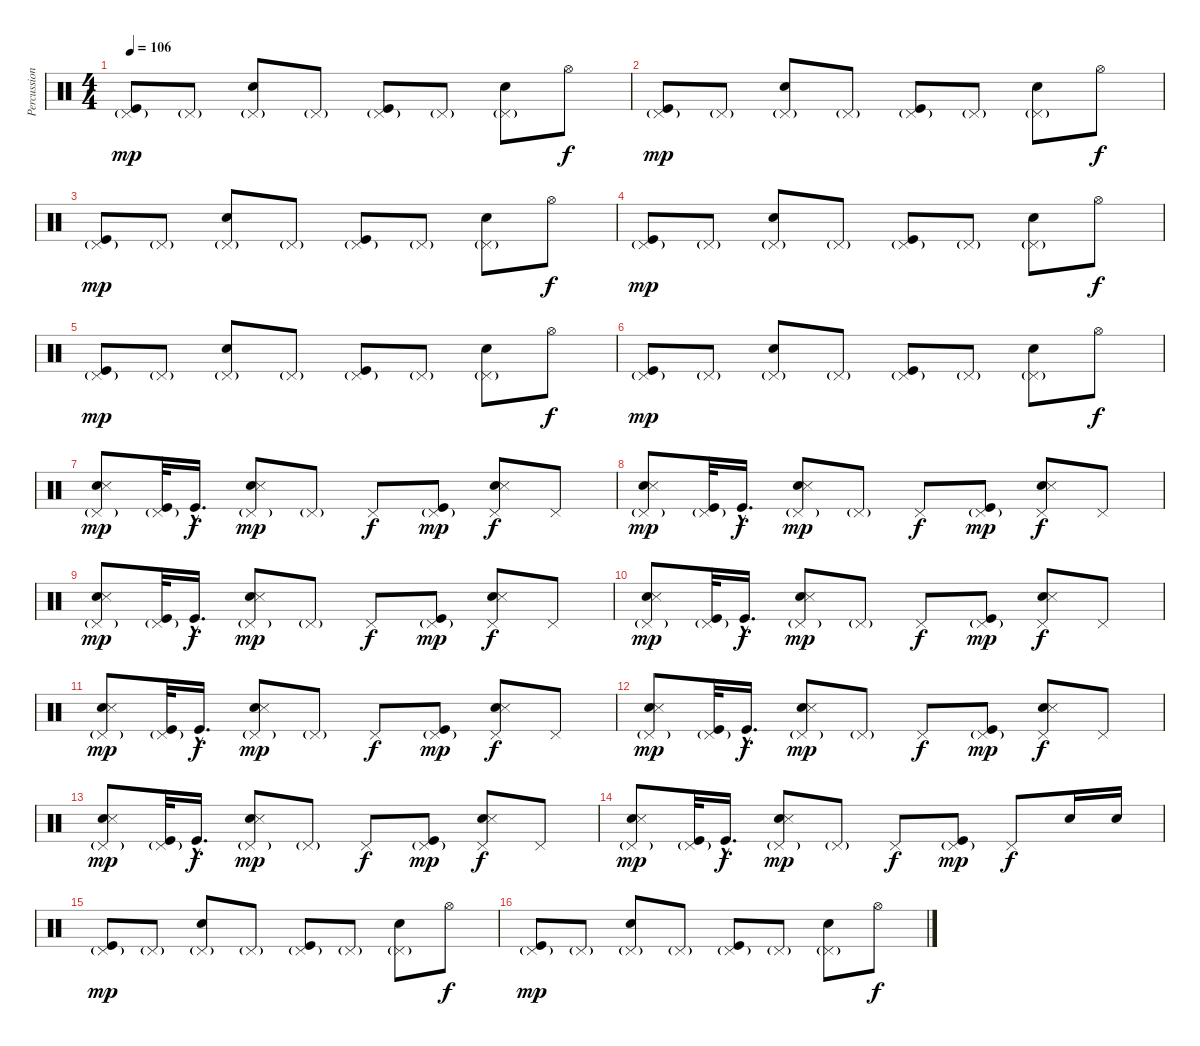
\track ("Percussions" "Percussion") {instrument percussion}
\staff {score}
\articulation defaults
\ts (4 4)
\tempo 106
\clef neutral
\ks c
("Pedal Hi-Hat (hit)"{g} "Kick (hit)").8{dy mp} "Pedal Hi-Hat (hit)"{g}.8 ("Pedal Hi-Hat (hit)"{g} "Electric Snare (hit)").8 "Pedal Hi-Hat (hit)"{g}.8 ("Pedal Hi-Hat (hit)"{g} "Kick (hit)").8 "Pedal Hi-Hat (hit)"{g}.8 ("Pedal Hi-Hat (hit)"{g} "Electric Snare (hit)").8 "Hi-Hat (open)".8{dy f} |
("Pedal Hi-Hat (hit)"{g} "Kick (hit)").8{dy mp} "Pedal Hi-Hat (hit)"{g}.8 ("Pedal Hi-Hat (hit)"{g} "Electric Snare (hit)").8 "Pedal Hi-Hat (hit)"{g}.8 ("Pedal Hi-Hat (hit)"{g} "Kick (hit)").8 "Pedal Hi-Hat (hit)"{g}.8 ("Pedal Hi-Hat (hit)"{g} "Electric Snare (hit)").8 "Hi-Hat (open)".8{dy f} |
("Pedal Hi-Hat (hit)"{g} "Kick (hit)").8{dy mp} "Pedal Hi-Hat (hit)"{g}.8 ("Pedal Hi-Hat (hit)"{g} "Electric Snare (hit)").8 "Pedal Hi-Hat (hit)"{g}.8 ("Pedal Hi-Hat (hit)"{g} "Kick (hit)").8 "Pedal Hi-Hat (hit)"{g}.8 ("Pedal Hi-Hat (hit)"{g} "Electric Snare (hit)").8 "Hi-Hat (open)".8{dy f} |
("Pedal Hi-Hat (hit)"{g} "Kick (hit)").8{dy mp} "Pedal Hi-Hat (hit)"{g}.8 ("Pedal Hi-Hat (hit)"{g} "Electric Snare (hit)").8 "Pedal Hi-Hat (hit)"{g}.8 ("Pedal Hi-Hat (hit)"{g} "Kick (hit)").8 "Pedal Hi-Hat (hit)"{g}.8 ("Pedal Hi-Hat (hit)"{g} "Electric Snare (hit)").8 "Hi-Hat (open)".8{dy f} |
("Pedal Hi-Hat (hit)"{g} "Kick (hit)").8{dy mp} "Pedal Hi-Hat (hit)"{g}.8 ("Pedal Hi-Hat (hit)"{g} "Electric Snare (hit)").8 "Pedal Hi-Hat (hit)"{g}.8 ("Pedal Hi-Hat (hit)"{g} "Kick (hit)").8 "Pedal Hi-Hat (hit)"{g}.8 ("Pedal Hi-Hat (hit)"{g} "Electric Snare (hit)").8 "Hi-Hat (open)".8{dy f} |
("Pedal Hi-Hat (hit)"{g} "Kick (hit)").8{dy mp} "Pedal Hi-Hat (hit)"{g}.8 ("Pedal Hi-Hat (hit)"{g} "Electric Snare (hit)").8 "Pedal Hi-Hat (hit)"{g}.8 ("Pedal Hi-Hat (hit)"{g} "Kick (hit)").8 "Pedal Hi-Hat (hit)"{g}.8 ("Pedal Hi-Hat (hit)"{g} "Electric Snare (hit)").8 "Hi-Hat (open)".8{dy f} |
("Pedal Hi-Hat (hit)"{g} "Electric Snare (hit)" "Snare (side stick) 3").8{dy mp} ("Pedal Hi-Hat (hit)"{g} "Kick (hit)").32 "Kick (hit)"{hac}.16{d dy f} ("Pedal Hi-Hat (hit)"{g} "Electric Snare (hit)" "Snare (side stick) 3").8{dy mp} "Pedal Hi-Hat (hit)"{g}.8 "Pedal Hi-Hat (hit)".8{dy f} ("Pedal Hi-Hat (hit)"{g} "Kick (hit)").8{dy mp} ("Pedal Hi-Hat (hit)" "Electric Snare (hit)" "Snare (side stick) 3").8{dy f} "Pedal Hi-Hat (hit)".8 |
("Pedal Hi-Hat (hit)"{g} "Electric Snare (hit)" "Snare (side stick) 3").8{dy mp} ("Pedal Hi-Hat (hit)"{g} "Kick (hit)").32 "Kick (hit)"{hac}.16{d dy f} ("Pedal Hi-Hat (hit)"{g} "Electric Snare (hit)" "Snare (side stick) 3").8{dy mp} "Pedal Hi-Hat (hit)"{g}.8 "Pedal Hi-Hat (hit)".8{dy f} ("Pedal Hi-Hat (hit)"{g} "Kick (hit)").8{dy mp} ("Pedal Hi-Hat (hit)" "Electric Snare (hit)" "Snare (side stick) 3").8{dy f} "Pedal Hi-Hat (hit)".8 |
("Pedal Hi-Hat (hit)"{g} "Electric Snare (hit)" "Snare (side stick) 3").8{dy mp} ("Pedal Hi-Hat (hit)"{g} "Kick (hit)").32 "Kick (hit)"{hac}.16{d dy f} ("Pedal Hi-Hat (hit)"{g} "Electric Snare (hit)" "Snare (side stick) 3").8{dy mp} "Pedal Hi-Hat (hit)"{g}.8 "Pedal Hi-Hat (hit)".8{dy f} ("Pedal Hi-Hat (hit)"{g} "Kick (hit)").8{dy mp} ("Pedal Hi-Hat (hit)" "Electric Snare (hit)" "Snare (side stick) 3").8{dy f} "Pedal Hi-Hat (hit)".8 |
("Pedal Hi-Hat (hit)"{g} "Electric Snare (hit)" "Snare (side stick) 3").8{dy mp} ("Pedal Hi-Hat (hit)"{g} "Kick (hit)").32 "Kick (hit)"{hac}.16{d dy f} ("Pedal Hi-Hat (hit)"{g} "Electric Snare (hit)" "Snare (side stick) 3").8{dy mp} "Pedal Hi-Hat (hit)"{g}.8 "Pedal Hi-Hat (hit)".8{dy f} ("Pedal Hi-Hat (hit)"{g} "Kick (hit)").8{dy mp} ("Pedal Hi-Hat (hit)" "Electric Snare (hit)" "Snare (side stick) 3").8{dy f} "Pedal Hi-Hat (hit)".8 |
("Pedal Hi-Hat (hit)"{g} "Electric Snare (hit)" "Snare (side stick) 3").8{dy mp} ("Pedal Hi-Hat (hit)"{g} "Kick (hit)").32 "Kick (hit)"{hac}.16{d dy f} ("Pedal Hi-Hat (hit)"{g} "Electric Snare (hit)" "Snare (side stick) 3").8{dy mp} "Pedal Hi-Hat (hit)"{g}.8 "Pedal Hi-Hat (hit)".8{dy f} ("Pedal Hi-Hat (hit)"{g} "Kick (hit)").8{dy mp} ("Pedal Hi-Hat (hit)" "Electric Snare (hit)" "Snare (side stick) 3").8{dy f} "Pedal Hi-Hat (hit)".8 |
("Pedal Hi-Hat (hit)"{g} "Electric Snare (hit)" "Snare (side stick) 3").8{dy mp} ("Pedal Hi-Hat (hit)"{g} "Kick (hit)").32 "Kick (hit)"{hac}.16{d dy f} ("Pedal Hi-Hat (hit)"{g} "Electric Snare (hit)" "Snare (side stick) 3").8{dy mp} "Pedal Hi-Hat (hit)"{g}.8 "Pedal Hi-Hat (hit)".8{dy f} ("Pedal Hi-Hat (hit)"{g} "Kick (hit)").8{dy mp} ("Pedal Hi-Hat (hit)" "Electric Snare (hit)" "Snare (side stick) 3").8{dy f} "Pedal Hi-Hat (hit)".8 |
("Pedal Hi-Hat (hit)"{g} "Electric Snare (hit)" "Snare (side stick) 3").8{dy mp} ("Pedal Hi-Hat (hit)"{g} "Kick (hit)").32 "Kick (hit)"{hac}.16{d dy f} ("Pedal Hi-Hat (hit)"{g} "Electric Snare (hit)" "Snare (side stick) 3").8{dy mp} "Pedal Hi-Hat (hit)"{g}.8 "Pedal Hi-Hat (hit)".8{dy f} ("Pedal Hi-Hat (hit)"{g} "Kick (hit)").8{dy mp} ("Pedal Hi-Hat (hit)" "Electric Snare (hit)" "Snare (side stick) 3").8{dy f} "Pedal Hi-Hat (hit)".8 |
("Pedal Hi-Hat (hit)"{g} "Electric Snare (hit)" "Snare (side stick) 3").8{dy mp} ("Pedal Hi-Hat (hit)"{g} "Kick (hit)").32 "Kick (hit)"{hac}.16{d dy f} ("Pedal Hi-Hat (hit)"{g} "Electric Snare (hit)" "Snare (side stick) 3").8{dy mp} "Pedal Hi-Hat (hit)"{g}.8 "Pedal Hi-Hat (hit)".8{dy f} ("Pedal Hi-Hat (hit)"{g} "Kick (hit)").8{dy mp} "Pedal Hi-Hat (hit)".8{dy f} "Electric Snare (hit)".16{volume 16} "Electric Snare (hit)".16 |
("Pedal Hi-Hat (hit)"{g} "Kick (hit)").8{dy mp} "Pedal Hi-Hat (hit)"{g}.8 ("Pedal Hi-Hat (hit)"{g} "Electric Snare (hit)").8 "Pedal Hi-Hat (hit)"{g}.8 ("Pedal Hi-Hat (hit)"{g} "Kick (hit)").8 "Pedal Hi-Hat (hit)"{g}.8 ("Pedal Hi-Hat (hit)"{g} "Electric Snare (hit)").8 "Hi-Hat (open)".8{dy f} |
("Pedal Hi-Hat (hit)"{g} "Kick (hit)").8{dy mp} "Pedal Hi-Hat (hit)"{g}.8 ("Pedal Hi-Hat (hit)"{g} "Electric Snare (hit)").8 "Pedal Hi-Hat (hit)"{g}.8 ("Pedal Hi-Hat (hit)"{g} "Kick (hit)").8 "Pedal Hi-Hat (hit)"{g}.8 ("Pedal Hi-Hat (hit)"{g} "Electric Snare (hit)").8 "Hi-Hat (open)".8{dy f}
